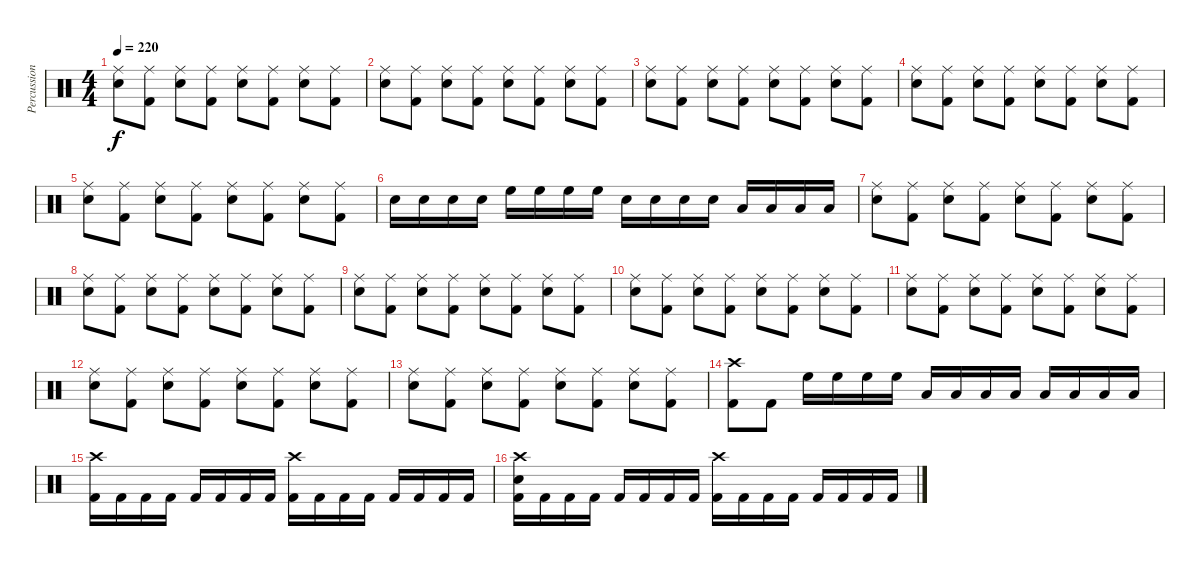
\track ("Percussion" "Percussion") {instrument percussion}
\staff {score}
\articulation defaults
\ts (4 4)
\tempo 220
\clef neutral
\ks c
("Ride (middle)" "Snare (hit) 2").8{dy f} ("Ride (middle)" "Kick (hit) 2").8 ("Ride (middle)" "Snare (hit) 2").8 ("Ride (middle)" "Kick (hit) 2").8 ("Ride (middle)" "Snare (hit) 2").8 ("Ride (middle)" "Kick (hit) 2").8 ("Ride (middle)" "Snare (hit) 2").8 ("Ride (middle)" "Kick (hit) 2").8 |
("Ride (middle)" "Snare (hit) 2").8 ("Ride (middle)" "Kick (hit) 2").8 ("Ride (middle)" "Snare (hit) 2").8 ("Ride (middle)" "Kick (hit) 2").8 ("Ride (middle)" "Snare (hit) 2").8 ("Ride (middle)" "Kick (hit) 2").8 ("Ride (middle)" "Snare (hit) 2").8 ("Ride (middle)" "Kick (hit) 2").8 |
("Ride (middle)" "Snare (hit) 2").8 ("Ride (middle)" "Kick (hit) 2").8 ("Ride (middle)" "Snare (hit) 2").8 ("Ride (middle)" "Kick (hit) 2").8 ("Ride (middle)" "Snare (hit) 2").8 ("Ride (middle)" "Kick (hit) 2").8 ("Ride (middle)" "Snare (hit) 2").8 ("Ride (middle)" "Kick (hit) 2").8 |
("Ride (middle)" "Snare (hit) 2").8 ("Ride (middle)" "Kick (hit) 2").8 ("Ride (middle)" "Snare (hit) 2").8 ("Ride (middle)" "Kick (hit) 2").8 ("Ride (middle)" "Snare (hit) 2").8 ("Ride (middle)" "Kick (hit) 2").8 ("Ride (middle)" "Snare (hit) 2").8 ("Ride (middle)" "Kick (hit) 2").8 |
("Ride (middle)" "Snare (hit) 2").8 ("Ride (middle)" "Kick (hit) 2").8 ("Ride (middle)" "Snare (hit) 2").8 ("Ride (middle)" "Kick (hit) 2").8 ("Ride (middle)" "Snare (hit) 2").8 ("Ride (middle)" "Kick (hit) 2").8 ("Ride (middle)" "Snare (hit) 2").8 ("Ride (middle)" "Kick (hit) 2").8 |
"Snare (hit) 2".16 "Snare (hit) 2".16 "Snare (hit) 2".16 "Snare (hit) 2".16 "High Floor Tom (hit)".16 "High Floor Tom (hit)".16 "High Floor Tom (hit)".16 "High Floor Tom (hit)".16 "Snare (hit) 2".16 "Snare (hit) 2".16 "Snare (hit) 2".16 "Snare (hit) 2".16 "Low Floor Tom (hit)".16 "Low Floor Tom (hit)".16 "Low Floor Tom (hit)".16 "Low Floor Tom (hit)".16 |
("Ride (middle)" "Snare (hit) 2").8 ("Ride (middle)" "Kick (hit) 2").8 ("Ride (middle)" "Snare (hit) 2").8 ("Ride (middle)" "Kick (hit) 2").8 ("Ride (middle)" "Snare (hit) 2").8 ("Ride (middle)" "Kick (hit) 2").8 ("Ride (middle)" "Snare (hit) 2").8 ("Ride (middle)" "Kick (hit) 2").8 |
("Ride (middle)" "Snare (hit) 2").8 ("Ride (middle)" "Kick (hit) 2").8 ("Ride (middle)" "Snare (hit) 2").8 ("Ride (middle)" "Kick (hit) 2").8 ("Ride (middle)" "Snare (hit) 2").8 ("Ride (middle)" "Kick (hit) 2").8 ("Ride (middle)" "Snare (hit) 2").8 ("Ride (middle)" "Kick (hit) 2").8 |
("Ride (middle)" "Snare (hit) 2").8 ("Ride (middle)" "Kick (hit) 2").8 ("Ride (middle)" "Snare (hit) 2").8 ("Ride (middle)" "Kick (hit) 2").8 ("Ride (middle)" "Snare (hit) 2").8 ("Ride (middle)" "Kick (hit) 2").8 ("Ride (middle)" "Snare (hit) 2").8 ("Ride (middle)" "Kick (hit) 2").8 |
("Ride (middle)" "Snare (hit) 2").8 ("Ride (middle)" "Kick (hit) 2").8 ("Ride (middle)" "Snare (hit) 2").8 ("Ride (middle)" "Kick (hit) 2").8 ("Ride (middle)" "Snare (hit) 2").8 ("Ride (middle)" "Kick (hit) 2").8 ("Ride (middle)" "Snare (hit) 2").8 ("Ride (middle)" "Kick (hit) 2").8 |
("Ride (middle)" "Snare (hit) 2").8 ("Ride (middle)" "Kick (hit) 2").8 ("Ride (middle)" "Snare (hit) 2").8 ("Ride (middle)" "Kick (hit) 2").8 ("Ride (middle)" "Snare (hit) 2").8 ("Ride (middle)" "Kick (hit) 2").8 ("Ride (middle)" "Snare (hit) 2").8 ("Ride (middle)" "Kick (hit) 2").8 |
("Ride (middle)" "Snare (hit) 2").8 ("Ride (middle)" "Kick (hit) 2").8 ("Ride (middle)" "Snare (hit) 2").8 ("Ride (middle)" "Kick (hit) 2").8 ("Ride (middle)" "Snare (hit) 2").8 ("Ride (middle)" "Kick (hit) 2").8 ("Ride (middle)" "Snare (hit) 2").8 ("Ride (middle)" "Kick (hit) 2").8 |
("Ride (middle)" "Snare (hit) 2").8 ("Ride (middle)" "Kick (hit) 2").8 ("Ride (middle)" "Snare (hit) 2").8 ("Ride (middle)" "Kick (hit) 2").8 ("Ride (middle)" "Snare (hit) 2").8 ("Ride (middle)" "Kick (hit) 2").8 ("Ride (middle)" "Snare (hit) 2").8 ("Ride (middle)" "Kick (hit) 2").8 |
("Crash high (hit)" "Kick (hit) 2").8 "Kick (hit) 2".8 "High Floor Tom (hit)".16 "High Floor Tom (hit)".16 "High Floor Tom (hit)".16 "High Floor Tom (hit)".16 "Low Floor Tom (hit)".16 "Low Floor Tom (hit)".16 "Low Floor Tom (hit)".16 "Low Floor Tom (hit)".16 "Low Floor Tom (hit)".16 "Low Floor Tom (hit)".16 "Low Floor Tom (hit)".16 "Low Floor Tom (hit)".16 |
("Crash high (hit)" "Kick (hit) 2").16 "Kick (hit) 2".16 "Kick (hit) 2".16 "Kick (hit) 2".16 "Kick (hit) 2".16 "Kick (hit) 2".16 "Kick (hit) 2".16 "Kick (hit) 2".16 ("Crash high (hit)" "Kick (hit) 2").16 "Kick (hit) 2".16 "Kick (hit) 2".16 "Kick (hit) 2".16 "Kick (hit) 2".16 "Kick (hit) 2".16 "Kick (hit) 2".16 "Kick (hit) 2".16 |
("Crash high (hit)" "Snare (hit) 2" "Kick (hit) 2").16 "Kick (hit) 2".16 "Kick (hit) 2".16 "Kick (hit) 2".16 "Kick (hit) 2".16 "Kick (hit) 2".16 "Kick (hit) 2".16 "Kick (hit) 2".16 ("Crash high (hit)" "Kick (hit) 2").16 "Kick (hit) 2".16 "Kick (hit) 2".16 "Kick (hit) 2".16 "Kick (hit) 2".16 "Kick (hit) 2".16 "Kick (hit) 2".16 "Kick (hit) 2".16
